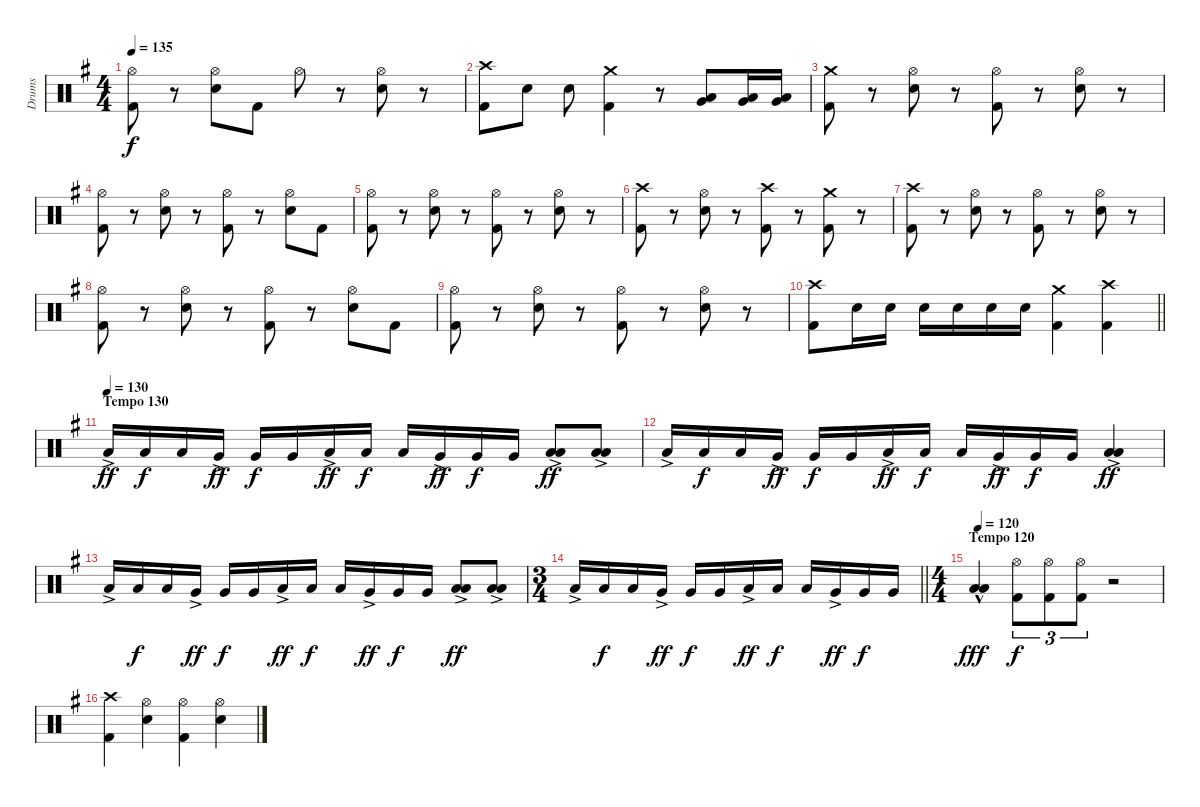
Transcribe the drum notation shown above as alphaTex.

\track ("Drums" "Drums") {instrument percussion}
\staff {score}
\articulation defaults
\ts (4 4)
\tempo 135
\clef neutral
\ks g
("Hi-Hat (open)" "Kick (hit) 2").8{dy f} r.8 ("Hi-Hat (open)" "Snare (hit) 2").8 "Kick (hit) 2".8 "Hi-Hat (open)".8 r.8 ("Hi-Hat (open)" "Snare (hit) 2").8 r.8 |
("Crash high (hit)" "Kick (hit) 2").8 "Snare (hit) 2".8 "Snare (hit) 2".8 ("Crash medium (hit)" "Kick (hit) 2").4 r.8 ("Low Tom (hit)" "Very Low Tom (hit)").8 ("Very Low Tom (hit)" "Low Floor Tom (hit)").16 ("Very Low Tom (hit)" "Low Floor Tom (hit)").16 |
("Crash medium (hit)" "Kick (hit) 2").8 r.8 ("Hi-Hat (open)" "Snare (hit) 2").8 r.8 ("Hi-Hat (open)" "Kick (hit) 2").8 r.8 ("Hi-Hat (open)" "Snare (hit) 2").8 r.8 |
("Hi-Hat (open)" "Kick (hit) 2").8 r.8 ("Hi-Hat (open)" "Snare (hit) 2").8 r.8 ("Hi-Hat (open)" "Kick (hit) 2").8 r.8 ("Hi-Hat (open)" "Snare (hit) 2").8 "Kick (hit) 2".8 |
("Hi-Hat (open)" "Kick (hit) 2").8 r.8 ("Hi-Hat (open)" "Snare (hit) 2").8 r.8 ("Hi-Hat (open)" "Kick (hit) 2").8 r.8 ("Hi-Hat (open)" "Snare (hit) 2").8 r.8 |
("Crash high (hit)" "Kick (hit) 2").8 r.8 ("Hi-Hat (open)" "Snare (hit) 2").8 r.8 ("Crash high (hit)" "Kick (hit) 2").8 r.8 ("Crash medium (hit)" "Kick (hit) 2").8 r.8 |
("Crash high (hit)" "Kick (hit) 2").8 r.8 ("Hi-Hat (open)" "Snare (hit) 2").8 r.8 ("Hi-Hat (open)" "Kick (hit) 2").8 r.8 ("Hi-Hat (open)" "Snare (hit) 2").8 r.8 |
("Hi-Hat (open)" "Kick (hit) 2").8 r.8 ("Hi-Hat (open)" "Snare (hit) 2").8 r.8 ("Hi-Hat (open)" "Kick (hit) 2").8 r.8 ("Hi-Hat (open)" "Snare (hit) 2").8 "Kick (hit) 2".8 |
("Hi-Hat (open)" "Kick (hit) 2").8 r.8 ("Hi-Hat (open)" "Snare (hit) 2").8 r.8 ("Hi-Hat (open)" "Kick (hit) 2").8 r.8 ("Hi-Hat (open)" "Snare (hit) 2").8 r.8 |
\barLineRight lightlight
("Crash high (hit)" "Kick (hit) 2").8 "Snare (hit) 2".16 "Snare (hit) 2".16 "Snare (hit) 2".16 "Snare (hit) 2".16 "Snare (hit) 2".16 "Snare (hit) 2".16 ("Crash medium (hit)" "Kick (hit) 2").4 ("Crash high (hit)" "Kick (hit) 2").4 |
\section ("" "Tempo 130")
\tempo (130)
"Low Tom (hit)"{ac}.16{dy ff} "Low Tom (hit)".16{dy f} "Low Tom (hit)".16 "Very Low Tom (hit)"{ac}.16{dy ff} "Very Low Tom (hit)".16{dy f} "Very Low Tom (hit)".16 "Low Tom (hit)"{ac}.16{dy ff} "Low Tom (hit)".16{dy f} "Low Tom (hit)".16 "Very Low Tom (hit)"{ac}.16{dy ff} "Very Low Tom (hit)".16{dy f} "Very Low Tom (hit)".16 ("Low Tom (hit)"{ac} "Low Tom (hit)"{ac}).8{dy ff} ("Low Tom (hit)"{ac} "Low Tom (hit)"{ac}).8 |
"Low Tom (hit)"{ac}.16 "Low Tom (hit)".16{dy f} "Low Tom (hit)".16 "Very Low Tom (hit)"{ac}.16{dy ff} "Very Low Tom (hit)".16{dy f} "Very Low Tom (hit)".16 "Low Tom (hit)"{ac}.16{dy ff} "Low Tom (hit)".16{dy f} "Low Tom (hit)".16 "Very Low Tom (hit)"{ac}.16{dy ff} "Very Low Tom (hit)".16{dy f} "Very Low Tom (hit)".16 ("Low Tom (hit)"{ac} "Low Tom (hit)"{ac}).4{dy ff} |
"Low Tom (hit)"{ac}.16 "Low Tom (hit)".16{dy f} "Low Tom (hit)".16 "Very Low Tom (hit)"{ac}.16{dy ff} "Very Low Tom (hit)".16{dy f} "Very Low Tom (hit)".16 "Low Tom (hit)"{ac}.16{dy ff} "Low Tom (hit)".16{dy f} "Low Tom (hit)".16 "Very Low Tom (hit)"{ac}.16{dy ff} "Very Low Tom (hit)".16{dy f} "Very Low Tom (hit)".16 ("Low Tom (hit)"{ac} "Low Tom (hit)"{ac}).8{dy ff} ("Low Tom (hit)"{ac} "Low Tom (hit)"{ac}).8 |
\ts (3 4)
\barLineRight lightlight "Low Tom (hit)"{ac}.16 "Low Tom (hit)".16{dy f} "Low Tom (hit)".16 "Very Low Tom (hit)"{ac}.16{dy ff} "Very Low Tom (hit)".16{dy f} "Very Low Tom (hit)".16 "Low Tom (hit)"{ac}.16{dy ff} "Low Tom (hit)".16{dy f} "Low Tom (hit)".16 "Very Low Tom (hit)"{ac}.16{dy ff} "Very Low Tom (hit)".16{dy f} "Very Low Tom (hit)".16
|
\ts (4 4)
\section ("" "Tempo 120")
\tempo 120
("Low Tom (hit)"{hac} "Low Tom (hit)"{hac}).4{dy fff} ("Hi-Hat (open)" "Kick (hit) 2").8{tu (3 2) dy f} ("Hi-Hat (open)" "Kick (hit) 2").8{tu (3 2)} ("Hi-Hat (open)" "Kick (hit) 2").8{tu (3 2)} r.2 |
("Crash high (hit)" "Kick (hit) 2").4 ("Hi-Hat (open)" "Snare (hit) 2").4 ("Hi-Hat (open)" "Kick (hit) 2").4 ("Hi-Hat (open)" "Snare (hit) 2").4
